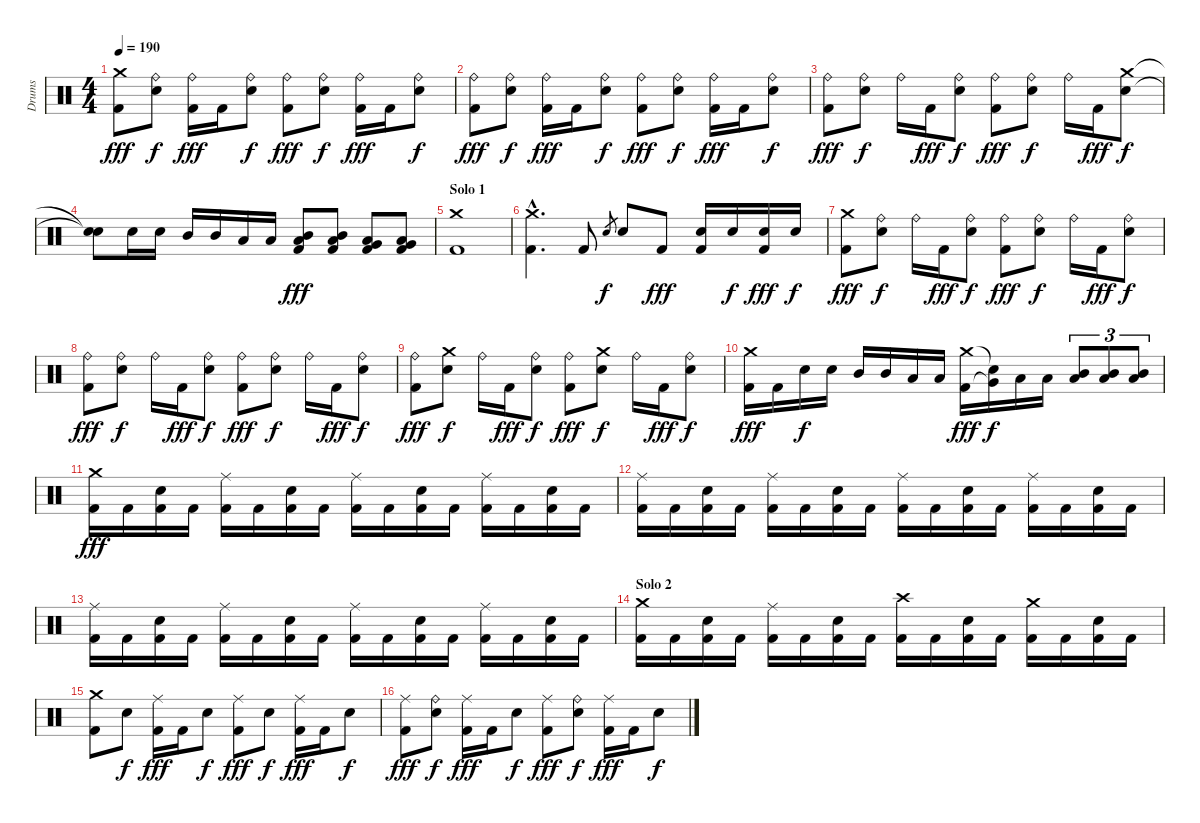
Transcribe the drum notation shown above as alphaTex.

\track ("Drums" "Drums") {instrument percussion}
\staff {score}
\articulation defaults
\ts (4 4)
\tempo 190
\clef neutral
\ks c
("Crash medium (hit)" "Kick (hit) 2").8{dy fff} ("Ride (bell)" "Snare (hit) 2").8{dy f} ("Ride (bell)" "Kick (hit) 2").16{dy fff} "Kick (hit) 2".16 ("Ride (bell)" "Snare (hit) 2").8{dy f} ("Ride (bell)" "Kick (hit) 2").8{dy fff} ("Ride (bell)" "Snare (hit) 2").8{dy f} ("Ride (bell)" "Kick (hit) 2").16{dy fff} "Kick (hit) 2".16 ("Ride (bell)" "Snare (hit) 2").8{dy f} |
("Ride (bell)" "Kick (hit) 2").8{dy fff} ("Ride (bell)" "Snare (hit) 2").8{dy f} ("Ride (bell)" "Kick (hit) 2").16{dy fff} "Kick (hit) 2".16 ("Ride (bell)" "Snare (hit) 2").8{dy f} ("Ride (bell)" "Kick (hit) 2").8{dy fff} ("Ride (bell)" "Snare (hit) 2").8{dy f} ("Ride (bell)" "Kick (hit) 2").16{dy fff} "Kick (hit) 2".16 ("Ride (bell)" "Snare (hit) 2").8{dy f} |
("Ride (bell)" "Kick (hit) 2").8{dy fff} ("Ride (bell)" "Snare (hit) 2").8{dy f} "Ride (bell)".16 "Kick (hit) 2".16{dy fff} ("Ride (bell)" "Snare (hit) 2").8{dy f} ("Ride (bell)" "Kick (hit) 2").8{dy fff} ("Ride (bell)" "Snare (hit) 2").8{dy f} "Ride (bell)".16 "Kick (hit) 2".16{dy fff} ("Crash medium (hit)" "Snare (hit) 2").8{dy f} |
("Snare (hit)"{t} "Snare (hit)"{t}).8 "Snare (hit) 2".16 "Snare (hit) 2".16 "Mid Tom (hit)".16 "Mid Tom (hit)".16 "Low Tom (hit)".16 "Low Tom (hit)".16 ("Mid Tom (hit)" "Low Tom (hit)" "Kick (hit) 2").8{dy fff} ("Mid Tom (hit)" "Low Tom (hit)" "Kick (hit) 2").8 ("Low Tom (hit)" "Very Low Tom (hit)" "Kick (hit) 2").8 ("Low Tom (hit)" "Very Low Tom (hit)" "Kick (hit) 2").8 |
\section ("" "Solo 1 ")
("Crash medium (hit)" "Kick (hit) 2").1 |
("Crash medium (hit)"{hac} "Kick (hit) 2"{hac}).4{d} "Kick (hit) 2".8 "Snare (hit) 2".8{gr dy f} "Snare (hit) 2".8 "Kick (hit) 2".8{dy fff} ("Snare (hit) 2" "Kick (hit) 2").16 "Snare (hit) 2".16{dy f} ("Snare (hit) 2" "Kick (hit) 2").16{dy fff} "Snare (hit) 2".16{dy f} |
("Crash medium (hit)" "Kick (hit) 2").8{dy fff} ("Ride (bell)" "Snare (hit) 2").8{dy f} "Ride (bell)".16 "Kick (hit) 2".16{dy fff} ("Ride (bell)" "Snare (hit) 2").8{dy f} ("Ride (bell)" "Kick (hit) 2").8{dy fff} ("Ride (bell)" "Snare (hit) 2").8{dy f} "Ride (bell)".16 "Kick (hit) 2".16{dy fff} ("Ride (bell)" "Snare (hit) 2").8{dy f} |
("Ride (bell)" "Kick (hit) 2").8{dy fff} ("Ride (bell)" "Snare (hit) 2").8{dy f} "Ride (bell)".16 "Kick (hit) 2".16{dy fff} ("Ride (bell)" "Snare (hit) 2").8{dy f} ("Ride (bell)" "Kick (hit) 2").8{dy fff} ("Ride (bell)" "Snare (hit) 2").8{dy f} "Ride (bell)".16 "Kick (hit) 2".16{dy fff} ("Ride (bell)" "Snare (hit) 2").8{dy f} |
("Ride (bell)" "Kick (hit) 2").8{dy fff} ("Crash medium (hit)" "Snare (hit) 2").8{dy f} "Ride (bell)".16 "Kick (hit) 2".16{dy fff} ("Ride (bell)" "Snare (hit) 2").8{dy f} ("Ride (bell)" "Kick (hit) 2").8{dy fff} ("Crash medium (hit)" "Snare (hit) 2").8{dy f} "Ride (bell)".16 "Kick (hit) 2".16{dy fff} ("Ride (bell)" "Snare (hit) 2").8{dy f} |
("Crash medium (hit)" "Kick (hit) 2").16{dy fff} "Kick (hit) 2".16 "Snare (hit) 2".16{dy f} "Snare (hit) 2".16 "Mid Tom (hit)".16 "Mid Tom (hit)".16 "Low Tom (hit)".16 "Low Tom (hit)".16 ("Crash medium (hit)" "Kick (hit) 2").16{dy fff} ("Snare (hit)"{t} "Very Low Tom (hit)"{t}).16{dy f} "Low Floor Tom (hit)".16 "Low Floor Tom (hit)".16 ("Mid Tom (hit)" "Low Tom (hit)").8{tu (3 2)} ("Mid Tom (hit)" "Low Tom (hit)").8{tu (3 2)} ("Mid Tom (hit)" "Low Tom (hit)").8{tu (3 2)} |
("Crash medium (hit)" "Kick (hit) 2").16{dy fff} "Kick (hit) 2".16 ("Snare (hit) 2" "Kick (hit) 2").16 "Kick (hit) 2".16 ("Ride (middle)" "Kick (hit) 2").16 "Kick (hit) 2".16 ("Snare (hit) 2" "Kick (hit) 2").16 "Kick (hit) 2".16 ("Ride (middle)" "Kick (hit) 2").16 "Kick (hit) 2".16 ("Snare (hit) 2" "Kick (hit) 2").16 "Kick (hit) 2".16 ("Ride (middle)" "Kick (hit) 2").16 "Kick (hit) 2".16 ("Snare (hit) 2" "Kick (hit) 2").16 "Kick (hit) 2".16 |
("Ride (middle)" "Kick (hit) 2").16 "Kick (hit) 2".16 ("Snare (hit) 2" "Kick (hit) 2").16 "Kick (hit) 2".16 ("Ride (middle)" "Kick (hit) 2").16 "Kick (hit) 2".16 ("Snare (hit) 2" "Kick (hit) 2").16 "Kick (hit) 2".16 ("Ride (middle)" "Kick (hit) 2").16 "Kick (hit) 2".16 ("Snare (hit) 2" "Kick (hit) 2").16 "Kick (hit) 2".16 ("Ride (middle)" "Kick (hit) 2").16 "Kick (hit) 2".16 ("Snare (hit) 2" "Kick (hit) 2").16 "Kick (hit) 2".16 |
("Ride (middle)" "Kick (hit) 2").16 "Kick (hit) 2".16 ("Snare (hit) 2" "Kick (hit) 2").16 "Kick (hit) 2".16 ("Ride (middle)" "Kick (hit) 2").16 "Kick (hit) 2".16 ("Snare (hit) 2" "Kick (hit) 2").16 "Kick (hit) 2".16 ("Ride (middle)" "Kick (hit) 2").16 "Kick (hit) 2".16 ("Snare (hit) 2" "Kick (hit) 2").16 "Kick (hit) 2".16 ("Ride (middle)" "Kick (hit) 2").16 "Kick (hit) 2".16 ("Snare (hit) 2" "Kick (hit) 2").16 "Kick (hit) 2".16 |
\section ("" "Solo 2")
("Crash medium (hit)" "Kick (hit) 2").16 "Kick (hit) 2".16 ("Snare (hit) 2" "Kick (hit) 2").16 "Kick (hit) 2".16 ("Ride (middle)" "Kick (hit) 2").16 "Kick (hit) 2".16 ("Snare (hit) 2" "Kick (hit) 2").16 "Kick (hit) 2".16 ("Crash high (hit)" "Kick (hit) 2").16 "Kick (hit) 2".16 ("Snare (hit) 2" "Kick (hit) 2").16 "Kick (hit) 2".16 ("Crash medium (hit)" "Kick (hit) 2").16 "Kick (hit) 2".16 ("Snare (hit) 2" "Kick (hit) 2").16 "Kick (hit) 2".16 |
("Crash medium (hit)" "Kick (hit) 2").8 "Snare (hit) 2".8{dy f} ("Ride (middle)" "Kick (hit) 2").16{dy fff} "Kick (hit) 2".16 "Snare (hit) 2".8{dy f} ("Ride (middle)" "Kick (hit) 2").8{dy fff} "Snare (hit) 2".8{dy f} ("Ride (middle)" "Kick (hit) 2").16{dy fff} "Kick (hit) 2".16 "Snare (hit) 2".8{dy f} |
("Ride (middle)" "Kick (hit) 2").8{dy fff} ("Ride (bell)" "Snare (hit) 2").8{dy f} ("Ride (middle)" "Kick (hit) 2").16{dy fff} "Kick (hit) 2".16 "Snare (hit) 2".8{dy f} ("Ride (middle)" "Kick (hit) 2").8{dy fff} ("Ride (bell)" "Snare (hit) 2").8{dy f} ("Ride (middle)" "Kick (hit) 2").16{dy fff} "Kick (hit) 2".16 "Snare (hit) 2".8{dy f}
